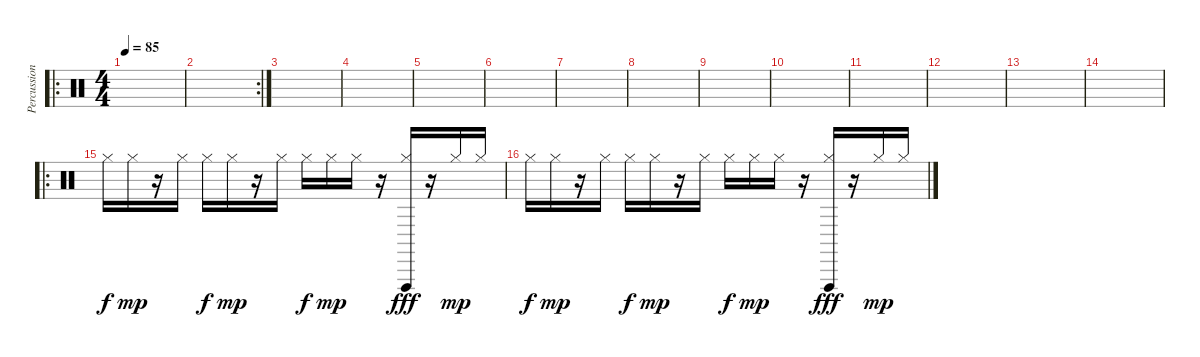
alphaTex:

\track ("Percussions" "Percussion") {instrument percussion}
\staff {score}
\articulation defaults
\ro
\ts (4 4)
\tempo 85
\clef neutral
\ks c
|
\rc 2
|
|
|
|
|
|
|
|
|
|
|
|
|
\ro "Hi-Hat (closed)".16{balance 0} "Hi-Hat (closed)".16{dy mp balance 16}
r.16 "Hi-Hat (closed)".16{balance 0} "Hi-Hat (closed)".16{dy f balance 16} "Hi-Hat (closed)".16{dy mp balance 0} r.16 "Hi-Hat (closed)".16{balance 16} "Hi-Hat (closed)".16{dy f balance 8} "Hi-Hat (closed)".16{dy mp balance 16} "Hi-Hat (closed)".16{balance 0} r.16 ("Hi-Hat (closed)" "Vibraslap (hit)").16{dy fff balance 16} r.16 "Hi-Hat (closed)".16{dy mp balance 0} "Hi-Hat (closed)".16{balance 16} |
"Hi-Hat (closed)".16{dy f balance 0} "Hi-Hat (closed)".16{dy mp balance 16} r.16 "Hi-Hat (closed)".16{balance 0} "Hi-Hat (closed)".16{dy f balance 16} "Hi-Hat (closed)".16{dy mp balance 0} r.16 "Hi-Hat (closed)".16{balance 16} "Hi-Hat (closed)".16{dy f balance 8} "Hi-Hat (closed)".16{dy mp balance 16} "Hi-Hat (closed)".16{balance 0} r.16 ("Hi-Hat (closed)" "Vibraslap (hit)").16{dy fff balance 16} r.16 "Hi-Hat (closed)".16{dy mp balance 0} "Hi-Hat (closed)".16{balance 16}
